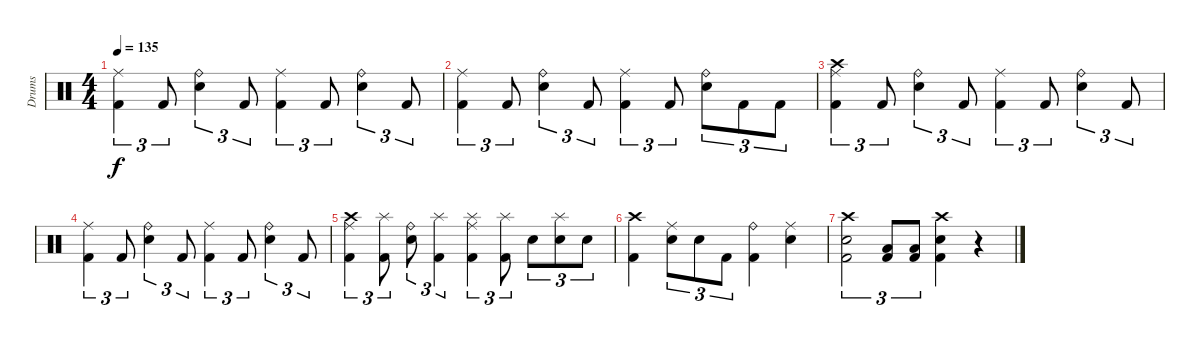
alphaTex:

\track ("Drums" "Drums") {instrument percussion}
\staff {score}
\articulation defaults
\ts (4 4)
\tempo 135
\clef neutral
\ks c
("Ride (middle)" "Kick (hit) 2").4{tu (3 2) dy f} "Kick (hit) 2".8{tu (3 2)} ("Ride (bell)" "Snare (hit) 2").4{tu (3 2)} "Kick (hit) 2".8{tu (3 2)} ("Ride (middle)" "Kick (hit) 2").4{tu (3 2)} "Kick (hit) 2".8{tu (3 2)} ("Ride (bell)" "Snare (hit) 2").4{tu (3 2)} "Kick (hit) 2".8{tu (3 2)} |
("Ride (middle)" "Kick (hit) 2").4{tu (3 2)} "Kick (hit) 2".8{tu (3 2)} ("Ride (bell)" "Snare (hit) 2").4{tu (3 2)} "Kick (hit) 2".8{tu (3 2)} ("Ride (middle)" "Kick (hit) 2").4{tu (3 2)} "Kick (hit) 2".8{tu (3 2)} ("Ride (bell)" "Snare (hit) 2").8{tu (3 2)} "Kick (hit) 2".8{tu (3 2)} "Kick (hit) 2".8{tu (3 2)} |
("Crash high (hit)" "Ride (middle)" "Kick (hit) 2").4{tu (3 2)} "Kick (hit) 2".8{tu (3 2)} ("Ride (bell)" "Snare (hit) 2").4{tu (3 2)} "Kick (hit) 2".8{tu (3 2)} ("Ride (middle)" "Kick (hit) 2").4{tu (3 2)} "Kick (hit) 2".8{tu (3 2)} ("Ride (bell)" "Snare (hit) 2").4{tu (3 2)} "Kick (hit) 2".8{tu (3 2)} |
("Ride (middle)" "Kick (hit) 2").4{tu (3 2)} "Kick (hit) 2".8{tu (3 2)} ("Ride (bell)" "Snare (hit) 2").4{tu (3 2)} "Kick (hit) 2".8{tu (3 2)} ("Ride (middle)" "Kick (hit) 2").4{tu (3 2)} "Kick (hit) 2".8{tu (3 2)} ("Ride (bell)" "Snare (hit) 2").4{tu (3 2)} "Kick (hit) 2".8{tu (3 2)} |
("Crash high (hit)" "Ride (middle)" "Kick (hit) 2").4{tu (3 2)} ("Splash (hit)" "Kick (hit) 2").8{tu (3 2)} ("Ride (bell)" "Snare (hit) 2").8{tu (3 2)} ("Splash (hit)" "Kick (hit) 2").4{tu (3 2)} ("Splash (hit)" "Ride (middle)" "Kick (hit) 2").4{tu (3 2)} ("Splash (hit)" "Kick (hit) 2").8{tu (3 2)} "Snare (hit) 2".8{tu (3 2)} ("Splash (hit)" "Snare (hit) 2").8{tu (3 2)} "Snare (hit) 2".8{tu (3 2)} |
("Crash high (hit)" "Kick (hit) 2").4 ("Ride (middle)" "Snare (hit) 2").8{tu (3 2)} "Snare (hit) 2".8{tu (3 2)} "Kick (hit) 2".8{tu (3 2)} ("Ride (bell)" "Kick (hit) 2").4 ("Ride (middle)" "Snare (hit) 2").4 |
("Crash high (hit)" "Snare (hit) 2" "Kick (hit) 2").2{tu (3 2)} ("Low Floor Tom (hit)" "Kick (hit) 2").8{tu (3 2)} ("Low Floor Tom (hit)" "Kick (hit) 2").8{tu (3 2)} ("Crash high (hit)" "Snare (hit) 2" "Kick (hit) 2").4 r.4
